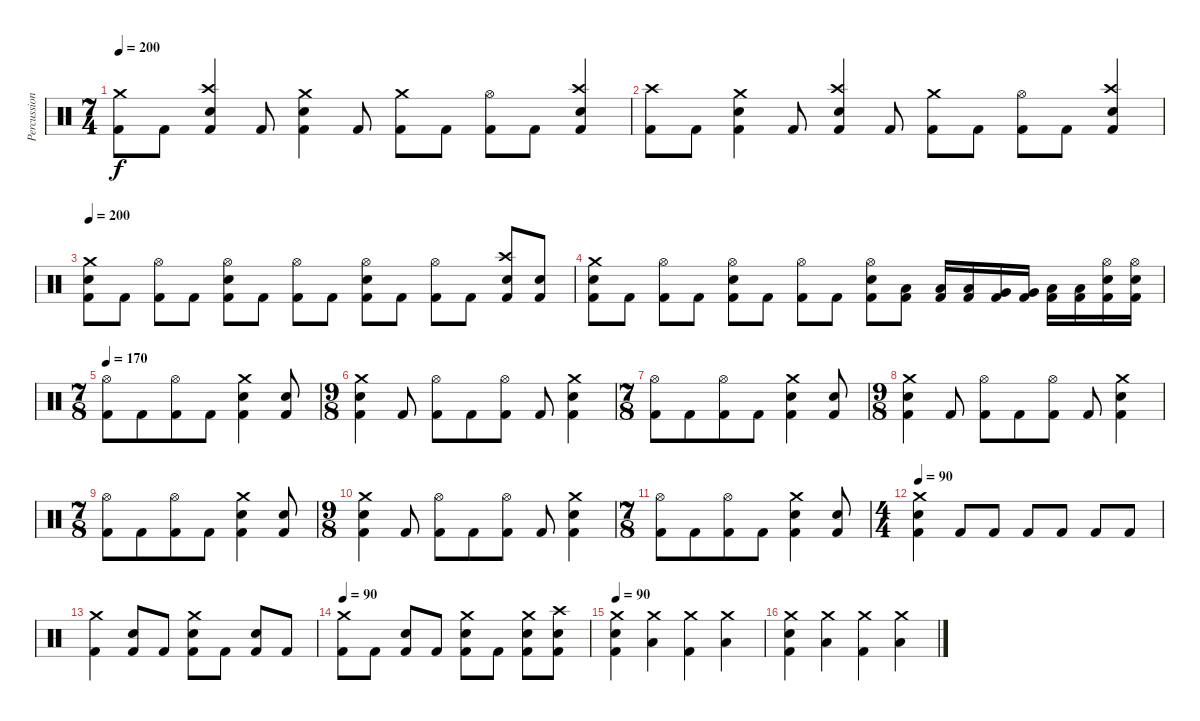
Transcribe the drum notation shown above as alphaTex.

\track ("Percussion" "Percussion") {instrument percussion}
\staff {score}
\articulation defaults
\ts (7 4)
\tempo 200
\clef neutral
\ks c
("Crash medium (hit)" "Kick (hit) 2").8{dy f} "Kick (hit) 2".8 ("Crash high (hit)" "Snare (hit) 2" "Kick (hit) 2").4 "Kick (hit) 2".8 ("Crash medium (hit)" "Snare (hit) 2" "Kick (hit) 2").4 "Kick (hit) 2".8 ("Crash medium (hit)" "Kick (hit) 2").8 "Kick (hit) 2".8 ("Hi-Hat (open)" "Kick (hit) 2").8 "Kick (hit) 2".8 ("Crash high (hit)" "Snare (hit) 2" "Kick (hit) 2").4 |
("Crash high (hit)" "Kick (hit) 2").8 "Kick (hit) 2".8 ("Crash medium (hit)" "Snare (hit) 2" "Kick (hit) 2").4 "Kick (hit) 2".8 ("Crash high (hit)" "Snare (hit) 2" "Kick (hit) 2").4 "Kick (hit) 2".8 ("Crash medium (hit)" "Kick (hit) 2").8 "Kick (hit) 2".8 ("Hi-Hat (open)" "Kick (hit) 2").8 "Kick (hit) 2".8 ("Crash high (hit)" "Snare (hit) 2" "Kick (hit) 2").4 |
\tempo 200
("Crash medium (hit)" "Snare (hit) 2" "Kick (hit) 2").8 "Kick (hit) 2".8 ("Hi-Hat (open)" "Kick (hit) 2").8 "Kick (hit) 2".8 ("Hi-Hat (open)" "Snare (hit) 2" "Kick (hit) 2").8 "Kick (hit) 2".8 ("Hi-Hat (open)" "Kick (hit) 2").8 "Kick (hit) 2".8 ("Hi-Hat (open)" "Snare (hit) 2" "Kick (hit) 2").8 "Kick (hit) 2".8 ("Hi-Hat (open)" "Kick (hit) 2").8 "Kick (hit) 2".8 ("Crash high (hit)" "Snare (hit) 2" "Kick (hit) 2").8 ("Snare (hit) 2" "Kick (hit) 2").8 |
("Crash medium (hit)" "Snare (hit) 2" "Kick (hit) 2").8 "Kick (hit) 2".8 ("Hi-Hat (open)" "Kick (hit) 2").8 "Kick (hit) 2".8 ("Hi-Hat (open)" "Snare (hit) 2" "Kick (hit) 2").8 "Kick (hit) 2".8 ("Hi-Hat (open)" "Kick (hit) 2").8 "Kick (hit) 2".8 ("Hi-Hat (open)" "Snare (hit) 2" "Kick (hit) 2").8 ("Low Floor Tom (hit)" "Kick (hit) 2").8 ("Low Floor Tom (hit)" "Kick (hit) 2").16 ("Low Floor Tom (hit)" "Kick (hit) 2").16 ("Very Low Tom (hit)" "Kick (hit) 2").16 ("Very Low Tom (hit)" "Kick (hit) 2").16 ("Low Tom (hit)" "Kick (hit) 2").16 ("Low Tom (hit)" "Kick (hit) 2").16 ("Hi-Hat (open)" "Snare (hit) 2" "Kick (hit) 2").16 ("Hi-Hat (open)" "Snare (hit) 2" "Kick (hit) 2").16 |
\ts (7 8)
\tempo 170
("Hi-Hat (open)" "Kick (hit) 2").8 "Kick (hit) 2".8 ("Hi-Hat (open)" "Kick (hit) 2").8 "Kick (hit) 2".8 ("Crash medium (hit)" "Snare (hit) 2" "Kick (hit) 2").4 ("Snare (hit) 2" "Kick (hit) 2").8 |
\ts (9 8)
("Crash medium (hit)" "Snare (hit) 2" "Kick (hit) 2").4 "Kick (hit) 2".8 ("Hi-Hat (open)" "Kick (hit) 2").8 "Kick (hit) 2".8 ("Hi-Hat (open)" "Kick (hit) 2").8 "Kick (hit) 2".8 ("Crash medium (hit)" "Snare (hit) 2" "Kick (hit) 2").4 |
\ts (7 8)
("Hi-Hat (open)" "Kick (hit) 2").8 "Kick (hit) 2".8 ("Hi-Hat (open)" "Kick (hit) 2").8 "Kick (hit) 2".8 ("Crash medium (hit)" "Snare (hit) 2" "Kick (hit) 2").4 ("Snare (hit) 2" "Kick (hit) 2").8 |
\ts (9 8)
("Crash medium (hit)" "Snare (hit) 2" "Kick (hit) 2").4 "Kick (hit) 2".8 ("Hi-Hat (open)" "Kick (hit) 2").8 "Kick (hit) 2".8 ("Hi-Hat (open)" "Kick (hit) 2").8 "Kick (hit) 2".8 ("Crash medium (hit)" "Snare (hit) 2" "Kick (hit) 2").4 |
\ts (7 8)
("Hi-Hat (open)" "Kick (hit) 2").8 "Kick (hit) 2".8 ("Hi-Hat (open)" "Kick (hit) 2").8 "Kick (hit) 2".8 ("Crash medium (hit)" "Snare (hit) 2" "Kick (hit) 2").4 ("Snare (hit) 2" "Kick (hit) 2").8 |
\ts (9 8)
("Crash medium (hit)" "Snare (hit) 2" "Kick (hit) 2").4 "Kick (hit) 2".8 ("Hi-Hat (open)" "Kick (hit) 2").8 "Kick (hit) 2".8 ("Hi-Hat (open)" "Kick (hit) 2").8 "Kick (hit) 2".8 ("Crash medium (hit)" "Snare (hit) 2" "Kick (hit) 2").4 |
\ts (7 8)
("Hi-Hat (open)" "Kick (hit) 2").8 "Kick (hit) 2".8 ("Hi-Hat (open)" "Kick (hit) 2").8 "Kick (hit) 2".8 ("Crash medium (hit)" "Snare (hit) 2" "Kick (hit) 2").4 ("Snare (hit) 2" "Kick (hit) 2").8 |
\ts (4 4)
\tempo 90
("Crash medium (hit)" "Snare (hit) 2" "Kick (hit) 2").4 "Kick (hit) 2".8 "Kick (hit) 2".8 "Kick (hit) 2".8 "Kick (hit) 2".8 "Kick (hit) 2".8 "Kick (hit) 2".8 |
("Crash medium (hit)" "Kick (hit) 2").4 ("Snare (hit) 2" "Kick (hit) 2").8 "Kick (hit) 2".8 ("Crash medium (hit)" "Snare (hit) 2" "Kick (hit) 2").8 "Kick (hit) 2".8 ("Snare (hit) 2" "Kick (hit) 2").8 "Kick (hit) 2".8 |
\tempo 90
("Crash medium (hit)" "Kick (hit) 2").8 "Kick (hit) 2".8 ("Snare (hit) 2" "Kick (hit) 2").8 "Kick (hit) 2".8 ("Crash medium (hit)" "Snare (hit) 2" "Kick (hit) 2").8 "Kick (hit) 2".8 ("Crash medium (hit)" "Snare (hit) 2" "Kick (hit) 2").8 ("Crash high (hit)" "Snare (hit) 2" "Kick (hit) 2").8 |
\tempo 90
("Crash medium (hit)" "Snare (hit) 2" "Kick (hit) 2").4 ("Crash medium (hit)" "Low Floor Tom (hit)").4 ("Crash medium (hit)" "Kick (hit) 2").4 ("Crash medium (hit)" "Low Floor Tom (hit)").4 |
("Crash medium (hit)" "Snare (hit) 2" "Kick (hit) 2").4 ("Crash medium (hit)" "Low Floor Tom (hit)").4 ("Crash medium (hit)" "Kick (hit) 2").4 ("Crash medium (hit)" "Low Floor Tom (hit)").4
